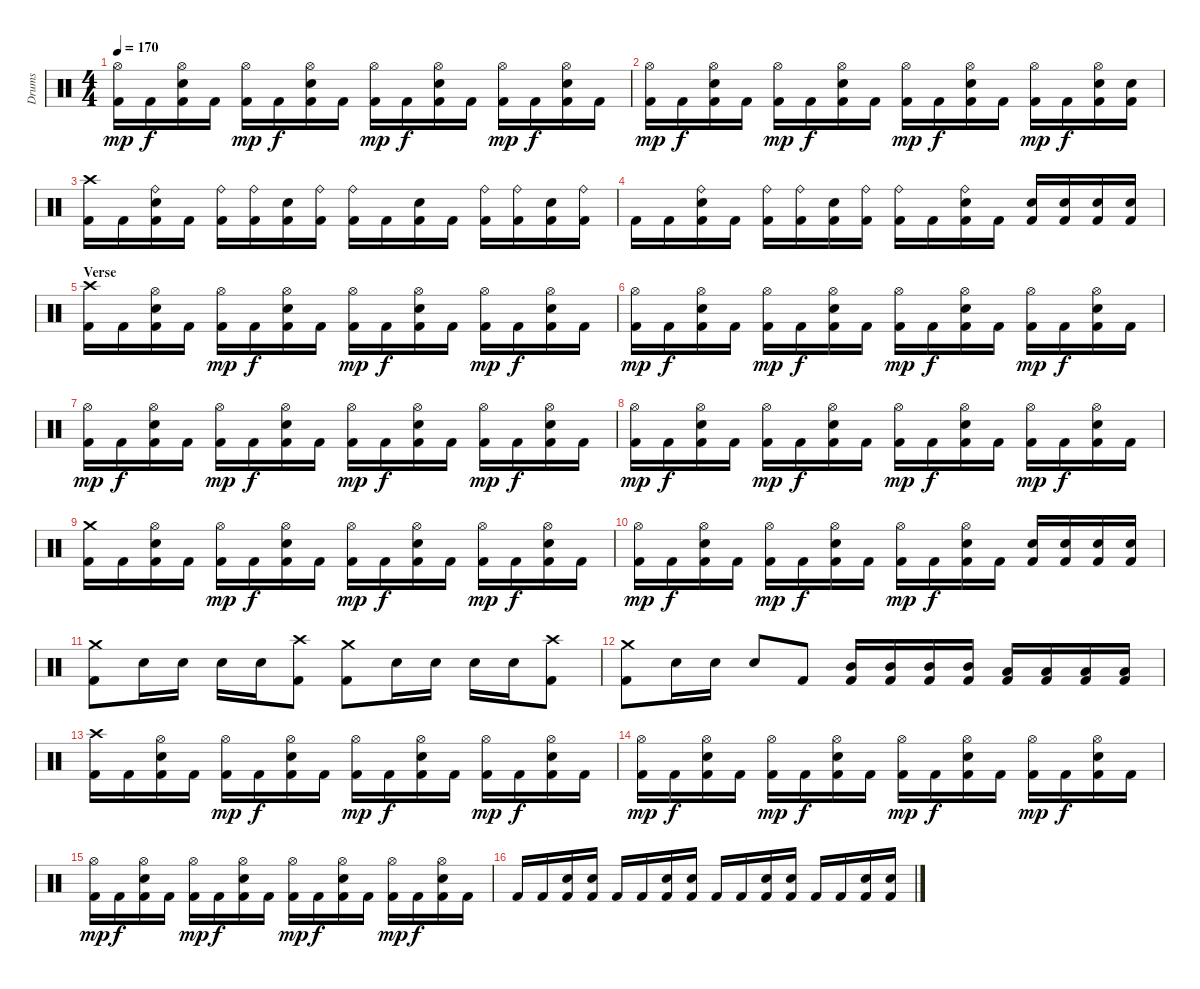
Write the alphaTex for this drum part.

\track ("Drums" "Drums") {instrument percussion}
\staff {score}
\articulation defaults
\ts (4 4)
\tempo 170
\clef neutral
\ks c
("Kick (hit) 2" "Hi-Hat (open)").16{dy mp} "Kick (hit) 2".16{dy f} ("Kick (hit) 2" "Electric Snare (hit)" "Hi-Hat (open)").16 "Kick (hit) 2".16 ("Kick (hit) 2" "Hi-Hat (open)").16{dy mp} "Kick (hit) 2".16{dy f} ("Kick (hit) 2" "Electric Snare (hit)" "Hi-Hat (open)").16 "Kick (hit) 2".16 ("Kick (hit) 2" "Hi-Hat (open)").16{dy mp} "Kick (hit) 2".16{dy f} ("Kick (hit) 2" "Electric Snare (hit)" "Hi-Hat (open)").16 "Kick (hit) 2".16 ("Kick (hit) 2" "Hi-Hat (open)").16{dy mp} "Kick (hit) 2".16{dy f} ("Kick (hit) 2" "Electric Snare (hit)" "Hi-Hat (open)").16 "Kick (hit) 2".16 |
("Kick (hit) 2" "Hi-Hat (open)").16{dy mp} "Kick (hit) 2".16{dy f} ("Kick (hit) 2" "Electric Snare (hit)" "Hi-Hat (open)").16 "Kick (hit) 2".16 ("Kick (hit) 2" "Hi-Hat (open)").16{dy mp} "Kick (hit) 2".16{dy f} ("Kick (hit) 2" "Electric Snare (hit)" "Hi-Hat (open)").16 "Kick (hit) 2".16 ("Kick (hit) 2" "Hi-Hat (open)").16{dy mp} "Kick (hit) 2".16{dy f} ("Kick (hit) 2" "Electric Snare (hit)" "Hi-Hat (open)").16 "Kick (hit) 2".16 ("Kick (hit) 2" "Hi-Hat (open)").16{dy mp} "Kick (hit) 2".16{dy f} ("Kick (hit) 2" "Electric Snare (hit)" "Hi-Hat (open)").16 ("Kick (hit) 2" "Electric Snare (hit)").16 |
("Kick (hit) 2" "Crash high (hit)").16 "Kick (hit) 2".16 ("Kick (hit) 2" "Electric Snare (hit)" "Ride (bell)").16 "Kick (hit) 2".16 ("Kick (hit) 2" "Ride (bell)").16 ("Kick (hit) 2" "Ride (bell)").16 ("Kick (hit) 2" "Electric Snare (hit)").16 ("Kick (hit) 2" "Ride (bell)").16 ("Kick (hit) 2" "Ride (bell)").16 "Kick (hit) 2".16 ("Kick (hit) 2" "Electric Snare (hit)").16 "Kick (hit) 2".16 ("Kick (hit) 2" "Ride (bell)").16 ("Kick (hit) 2" "Ride (bell)").16 ("Kick (hit) 2" "Electric Snare (hit)").16 ("Kick (hit) 2" "Ride (bell)").16 |
"Kick (hit) 2".16 "Kick (hit) 2".16 ("Kick (hit) 2" "Electric Snare (hit)" "Ride (bell)").16 "Kick (hit) 2".16 ("Kick (hit) 2" "Ride (bell)").16 ("Kick (hit) 2" "Ride (bell)").16 ("Kick (hit) 2" "Electric Snare (hit)").16 ("Kick (hit) 2" "Ride (bell)").16 ("Kick (hit) 2" "Ride (bell)").16 "Kick (hit) 2".16 ("Kick (hit) 2" "Electric Snare (hit)" "Ride (bell)").16 "Kick (hit) 2".16 ("Kick (hit) 2" "Electric Snare (hit)").16 ("Kick (hit) 2" "Electric Snare (hit)").16 ("Kick (hit) 2" "Electric Snare (hit)").16 ("Kick (hit) 2" "Electric Snare (hit)").16 |
\section ("" "Verse")
("Kick (hit) 2" "Crash high (hit)").16 "Kick (hit) 2".16 ("Kick (hit) 2" "Electric Snare (hit)" "Hi-Hat (open)").16 "Kick (hit) 2".16 ("Kick (hit) 2" "Hi-Hat (open)").16{dy mp} "Kick (hit) 2".16{dy f} ("Kick (hit) 2" "Electric Snare (hit)" "Hi-Hat (open)").16 "Kick (hit) 2".16 ("Kick (hit) 2" "Hi-Hat (open)").16{dy mp} "Kick (hit) 2".16{dy f} ("Kick (hit) 2" "Electric Snare (hit)" "Hi-Hat (open)").16 "Kick (hit) 2".16 ("Kick (hit) 2" "Hi-Hat (open)").16{dy mp} "Kick (hit) 2".16{dy f} ("Kick (hit) 2" "Electric Snare (hit)" "Hi-Hat (open)").16 "Kick (hit) 2".16 |
("Kick (hit) 2" "Hi-Hat (open)").16{dy mp} "Kick (hit) 2".16{dy f} ("Kick (hit) 2" "Electric Snare (hit)" "Hi-Hat (open)").16 "Kick (hit) 2".16 ("Kick (hit) 2" "Hi-Hat (open)").16{dy mp} "Kick (hit) 2".16{dy f} ("Kick (hit) 2" "Electric Snare (hit)" "Hi-Hat (open)").16 "Kick (hit) 2".16 ("Kick (hit) 2" "Hi-Hat (open)").16{dy mp} "Kick (hit) 2".16{dy f} ("Kick (hit) 2" "Electric Snare (hit)" "Hi-Hat (open)").16 "Kick (hit) 2".16 ("Kick (hit) 2" "Hi-Hat (open)").16{dy mp} "Kick (hit) 2".16{dy f} ("Kick (hit) 2" "Electric Snare (hit)" "Hi-Hat (open)").16 "Kick (hit) 2".16 |
("Kick (hit) 2" "Hi-Hat (open)").16{dy mp} "Kick (hit) 2".16{dy f} ("Kick (hit) 2" "Electric Snare (hit)" "Hi-Hat (open)").16 "Kick (hit) 2".16 ("Kick (hit) 2" "Hi-Hat (open)").16{dy mp} "Kick (hit) 2".16{dy f} ("Kick (hit) 2" "Electric Snare (hit)" "Hi-Hat (open)").16 "Kick (hit) 2".16 ("Kick (hit) 2" "Hi-Hat (open)").16{dy mp} "Kick (hit) 2".16{dy f} ("Kick (hit) 2" "Electric Snare (hit)" "Hi-Hat (open)").16 "Kick (hit) 2".16 ("Kick (hit) 2" "Hi-Hat (open)").16{dy mp} "Kick (hit) 2".16{dy f} ("Kick (hit) 2" "Electric Snare (hit)" "Hi-Hat (open)").16 "Kick (hit) 2".16 |
("Kick (hit) 2" "Hi-Hat (open)").16{dy mp} "Kick (hit) 2".16{dy f} ("Kick (hit) 2" "Electric Snare (hit)" "Hi-Hat (open)").16 "Kick (hit) 2".16 ("Kick (hit) 2" "Hi-Hat (open)").16{dy mp} "Kick (hit) 2".16{dy f} ("Kick (hit) 2" "Electric Snare (hit)" "Hi-Hat (open)").16 "Kick (hit) 2".16 ("Kick (hit) 2" "Hi-Hat (open)").16{dy mp} "Kick (hit) 2".16{dy f} ("Kick (hit) 2" "Electric Snare (hit)" "Hi-Hat (open)").16 "Kick (hit) 2".16 ("Kick (hit) 2" "Hi-Hat (open)").16{dy mp} "Kick (hit) 2".16{dy f} ("Kick (hit) 2" "Electric Snare (hit)" "Hi-Hat (open)").16 "Kick (hit) 2".16 |
("Kick (hit) 2" "Crash medium (hit)").16 "Kick (hit) 2".16 ("Kick (hit) 2" "Electric Snare (hit)" "Hi-Hat (open)").16 "Kick (hit) 2".16 ("Kick (hit) 2" "Hi-Hat (open)").16{dy mp} "Kick (hit) 2".16{dy f} ("Kick (hit) 2" "Electric Snare (hit)" "Hi-Hat (open)").16 "Kick (hit) 2".16 ("Kick (hit) 2" "Hi-Hat (open)").16{dy mp} "Kick (hit) 2".16{dy f} ("Kick (hit) 2" "Electric Snare (hit)" "Hi-Hat (open)").16 "Kick (hit) 2".16 ("Kick (hit) 2" "Hi-Hat (open)").16{dy mp} "Kick (hit) 2".16{dy f} ("Kick (hit) 2" "Electric Snare (hit)" "Hi-Hat (open)").16 "Kick (hit) 2".16 |
("Kick (hit) 2" "Hi-Hat (open)").16{dy mp} "Kick (hit) 2".16{dy f} ("Kick (hit) 2" "Electric Snare (hit)" "Hi-Hat (open)").16 "Kick (hit) 2".16 ("Kick (hit) 2" "Hi-Hat (open)").16{dy mp} "Kick (hit) 2".16{dy f} ("Kick (hit) 2" "Electric Snare (hit)" "Hi-Hat (open)").16 "Kick (hit) 2".16 ("Kick (hit) 2" "Hi-Hat (open)").16{dy mp} "Kick (hit) 2".16{dy f} ("Kick (hit) 2" "Electric Snare (hit)" "Hi-Hat (open)").16 "Kick (hit) 2".16 ("Kick (hit) 2" "Electric Snare (hit)").16 ("Kick (hit) 2" "Electric Snare (hit)").16 ("Kick (hit) 2" "Electric Snare (hit)").16 ("Kick (hit) 2" "Electric Snare (hit)").16 |
("Kick (hit) 2" "Crash medium (hit)").8 "Electric Snare (hit)".16 "Electric Snare (hit)".16 "Electric Snare (hit)".16 "Electric Snare (hit)".16 ("Kick (hit) 2" "Crash high (hit)").8 ("Kick (hit) 2" "Crash medium (hit)").8 "Electric Snare (hit)".16 "Electric Snare (hit)".16 "Electric Snare (hit)".16 "Electric Snare (hit)".16 ("Kick (hit) 2" "Crash high (hit)").8 |
("Kick (hit) 2" "Crash medium (hit)").8 "Electric Snare (hit)".16 "Electric Snare (hit)".16 "Electric Snare (hit)".8 "Kick (hit) 2".8 ("Kick (hit) 2" "Mid Tom (hit)").16 ("Kick (hit) 2" "Mid Tom (hit)").16 ("Kick (hit) 2" "Mid Tom (hit)").16 ("Kick (hit) 2" "Mid Tom (hit)").16 ("Kick (hit) 2" "Low Tom (hit)").16 ("Kick (hit) 2" "Low Tom (hit)").16 ("Kick (hit) 2" "Low Tom (hit)").16 ("Kick (hit) 2" "Low Tom (hit)").16 |
("Kick (hit) 2" "Crash high (hit)").16 "Kick (hit) 2".16 ("Kick (hit) 2" "Electric Snare (hit)" "Hi-Hat (open)").16 "Kick (hit) 2".16 ("Kick (hit) 2" "Hi-Hat (open)").16{dy mp} "Kick (hit) 2".16{dy f} ("Kick (hit) 2" "Electric Snare (hit)" "Hi-Hat (open)").16 "Kick (hit) 2".16 ("Kick (hit) 2" "Hi-Hat (open)").16{dy mp} "Kick (hit) 2".16{dy f} ("Kick (hit) 2" "Electric Snare (hit)" "Hi-Hat (open)").16 "Kick (hit) 2".16 ("Kick (hit) 2" "Hi-Hat (open)").16{dy mp} "Kick (hit) 2".16{dy f} ("Kick (hit) 2" "Electric Snare (hit)" "Hi-Hat (open)").16 "Kick (hit) 2".16 |
("Kick (hit) 2" "Hi-Hat (open)").16{dy mp} "Kick (hit) 2".16{dy f} ("Kick (hit) 2" "Electric Snare (hit)" "Hi-Hat (open)").16 "Kick (hit) 2".16 ("Kick (hit) 2" "Hi-Hat (open)").16{dy mp} "Kick (hit) 2".16{dy f} ("Kick (hit) 2" "Electric Snare (hit)" "Hi-Hat (open)").16 "Kick (hit) 2".16 ("Kick (hit) 2" "Hi-Hat (open)").16{dy mp} "Kick (hit) 2".16{dy f} ("Kick (hit) 2" "Electric Snare (hit)" "Hi-Hat (open)").16 "Kick (hit) 2".16 ("Kick (hit) 2" "Hi-Hat (open)").16{dy mp} "Kick (hit) 2".16{dy f} ("Kick (hit) 2" "Electric Snare (hit)" "Hi-Hat (open)").16 "Kick (hit) 2".16 |
("Kick (hit) 2" "Hi-Hat (open)").16{dy mp} "Kick (hit) 2".16{dy f} ("Kick (hit) 2" "Electric Snare (hit)" "Hi-Hat (open)").16 "Kick (hit) 2".16 ("Kick (hit) 2" "Hi-Hat (open)").16{dy mp} "Kick (hit) 2".16{dy f} ("Kick (hit) 2" "Electric Snare (hit)" "Hi-Hat (open)").16 "Kick (hit) 2".16 ("Kick (hit) 2" "Hi-Hat (open)").16{dy mp} "Kick (hit) 2".16{dy f} ("Kick (hit) 2" "Electric Snare (hit)" "Hi-Hat (open)").16 "Kick (hit) 2".16 ("Kick (hit) 2" "Hi-Hat (open)").16{dy mp} "Kick (hit) 2".16{dy f} ("Kick (hit) 2" "Electric Snare (hit)" "Hi-Hat (open)").16 "Kick (hit) 2".16 |
"Kick (hit) 2".16 "Kick (hit) 2".16 ("Kick (hit) 2" "Electric Snare (hit)").16 ("Kick (hit) 2" "Electric Snare (hit)").16 "Kick (hit) 2".16 "Kick (hit) 2".16 ("Kick (hit) 2" "Electric Snare (hit)").16 ("Kick (hit) 2" "Electric Snare (hit)").16 "Kick (hit) 2".16 "Kick (hit) 2".16 ("Kick (hit) 2" "Electric Snare (hit)").16 ("Kick (hit) 2" "Electric Snare (hit)").16 "Kick (hit) 2".16 "Kick (hit) 2".16 ("Kick (hit) 2" "Electric Snare (hit)").16 ("Kick (hit) 2" "Electric Snare (hit)").16
